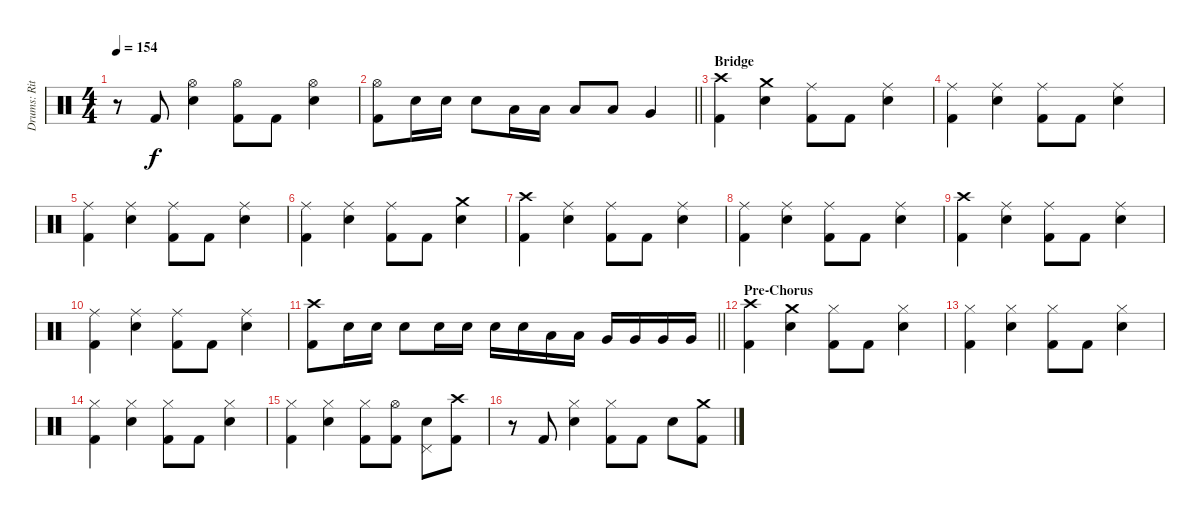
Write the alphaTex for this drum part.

\track ("Drums: Ritsu Tainaka" "Drums: Rit") {instrument percussion}
\staff {score}
\articulation defaults
\ts (4 4)
\tempo 154
\clef neutral
\ks c
r.8{dy f} "Kick (hit) 2".8 ("Hi-Hat (open)" "Electric Snare (hit)").4 ("Hi-Hat (open)" "Kick (hit) 2").8 "Kick (hit) 2".8 ("Hi-Hat (open)" "Electric Snare (hit)").4 |
\barLineRight lightlight
("Hi-Hat (open)" "Kick (hit) 2").8 "Electric Snare (hit)".16 "Electric Snare (hit)".16 "Electric Snare (hit)".8 "Low Tom (hit)".16 "Low Tom (hit)".16 "Low Tom (hit)".8 "Low Tom (hit)".8 "Very Low Tom (hit)".4 |
\section ("" "Bridge")
("Crash high (hit)" "Kick (hit) 2").4 ("Crash medium (hit)" "Electric Snare (hit)").4 ("Ride (middle)" "Kick (hit) 2").8 "Kick (hit) 2".8 ("Ride (middle)" "Electric Snare (hit)").4 |
("Ride (middle)" "Kick (hit) 2").4 ("Ride (middle)" "Electric Snare (hit)").4 ("Ride (middle)" "Kick (hit) 2").8 "Kick (hit) 2".8 ("Ride (middle)" "Electric Snare (hit)").4 |
("Ride (middle)" "Kick (hit) 2").4 ("Ride (middle)" "Electric Snare (hit)").4 ("Ride (middle)" "Kick (hit) 2").8 "Kick (hit) 2".8 ("Ride (middle)" "Electric Snare (hit)").4 |
("Ride (middle)" "Kick (hit) 2").4 ("Ride (middle)" "Electric Snare (hit)").4 ("Ride (middle)" "Kick (hit) 2").8 "Kick (hit) 2".8 ("Crash medium (hit)" "Electric Snare (hit)").4 |
("Crash high (hit)" "Kick (hit) 2").4 ("Ride (middle)" "Electric Snare (hit)").4 ("Ride (middle)" "Kick (hit) 2").8 "Kick (hit) 2".8 ("Ride (middle)" "Electric Snare (hit)").4 |
("Ride (middle)" "Kick (hit) 2").4 ("Ride (middle)" "Electric Snare (hit)").4 ("Ride (middle)" "Kick (hit) 2").8 "Kick (hit) 2".8 ("Ride (middle)" "Electric Snare (hit)").4 |
("Crash high (hit)" "Kick (hit) 2").4 ("Ride (middle)" "Electric Snare (hit)").4 ("Ride (middle)" "Kick (hit) 2").8 "Kick (hit) 2".8 ("Ride (middle)" "Electric Snare (hit)").4 |
("Ride (middle)" "Kick (hit) 2").4 ("Ride (middle)" "Electric Snare (hit)").4 ("Ride (middle)" "Kick (hit) 2").8 "Kick (hit) 2".8 ("Ride (middle)" "Electric Snare (hit)").4 |
\barLineRight lightlight
("Crash high (hit)" "Kick (hit) 2").8 "Electric Snare (hit)".16 "Electric Snare (hit)".16 "Electric Snare (hit)".8 "Electric Snare (hit)".16 "Electric Snare (hit)".16 "Electric Snare (hit)".16 "Electric Snare (hit)".16 "Low Tom (hit)".16 "Low Tom (hit)".16 "Very Low Tom (hit)".16 "Very Low Tom (hit)".16 "Very Low Tom (hit)".16 "Very Low Tom (hit)".16 |
\section ("" "Pre-Chorus")
("Crash high (hit)" "Kick (hit) 2").4 ("Crash medium (hit)" "Electric Snare (hit)").4 ("Hi-Hat (closed)" "Kick (hit) 2").8 "Kick (hit) 2".8 ("Hi-Hat (closed)" "Electric Snare (hit)").4 |
("Hi-Hat (closed)" "Kick (hit) 2").4 ("Hi-Hat (closed)" "Electric Snare (hit)").4 ("Hi-Hat (closed)" "Kick (hit) 2").8 "Kick (hit) 2".8 ("Hi-Hat (closed)" "Electric Snare (hit)").4 |
("Hi-Hat (closed)" "Kick (hit) 2").4 ("Hi-Hat (closed)" "Electric Snare (hit)").4 ("Hi-Hat (closed)" "Kick (hit) 2").8 "Kick (hit) 2".8 ("Hi-Hat (closed)" "Electric Snare (hit)").4 |
("Hi-Hat (closed)" "Kick (hit) 2").4 ("Hi-Hat (closed)" "Electric Snare (hit)").4 ("Hi-Hat (closed)" "Kick (hit) 2").8 ("Hi-Hat (open)" "Kick (hit) 2").8 ("Pedal Hi-Hat (hit)" "Electric Snare (hit)").8 ("Crash high (hit)" "Kick (hit) 2").8 |
r.8 "Kick (hit) 2".8 ("Hi-Hat (closed)" "Electric Snare (hit)").4 ("Hi-Hat (closed)" "Kick (hit) 2").8 "Kick (hit) 2".8 "Electric Snare (hit)".8 ("Crash medium (hit)" "Kick (hit) 2").8
